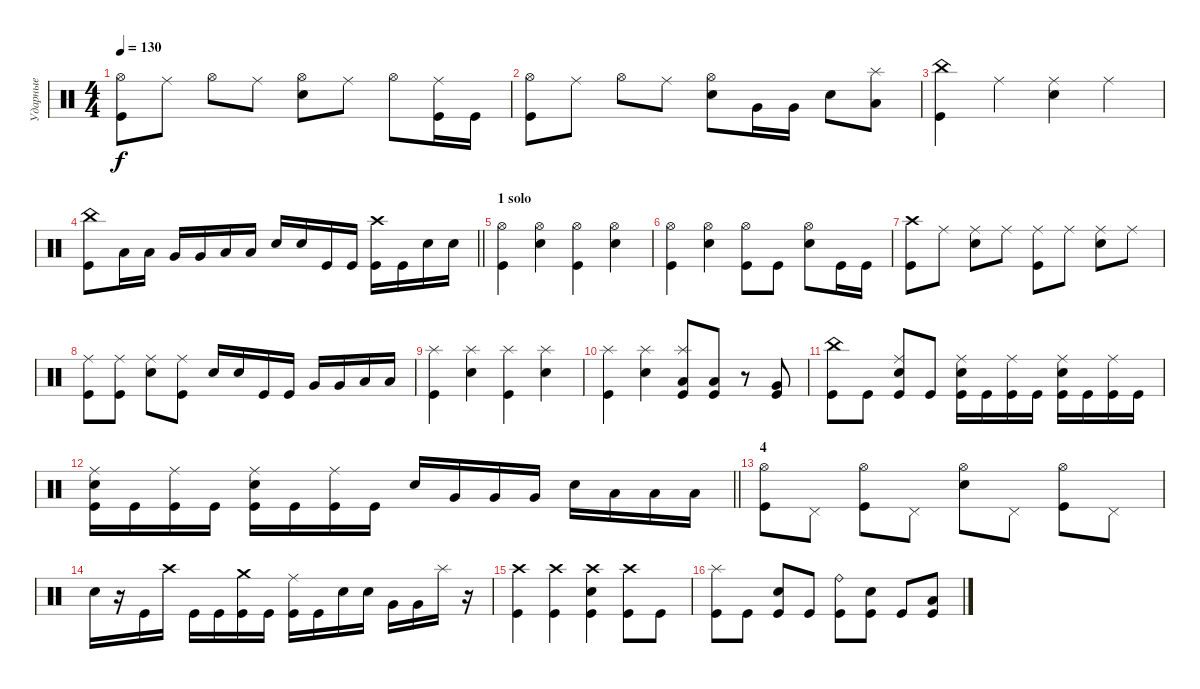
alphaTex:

\track ("Ударные" "Ударные") {instrument percussion}
\staff {score}
\articulation defaults
\ts (4 4)
\tempo 130
\clef neutral
\ks c
("Hi-Hat (open)" "Kick (hit)").8{dy f} "Ride (middle)".8 "Hi-Hat (open)".8 "Ride (middle)".8 ("Hi-Hat (open)" "Electric Snare (hit)").8 "Ride (middle)".8 "Hi-Hat (open)".8 ("Ride (middle)" "Kick (hit)").16 "Kick (hit)".16 |
("Hi-Hat (open)" "Kick (hit)").8 "Ride (middle)".8 "Hi-Hat (open)".8 "Ride (middle)".8 ("Hi-Hat (open)" "Electric Snare (hit)").8 "Very Low Tom (hit)".16 "Very Low Tom (hit)".16 "Electric Snare (hit)".8 ("Splash (hit)" "Low Floor Tom (hit)").8 |
("China (hit)" "Kick (hit)").4 "Ride (middle)".4 ("Ride (middle)" "Electric Snare (hit)").4 "Ride (middle)".4 |
\barLineRight lightlight
("China (hit)" "Kick (hit)").8 "Low Tom (hit)".16 "Low Tom (hit)".16 "Very Low Tom (hit)".16 "Very Low Tom (hit)".16 "Low Floor Tom (hit)".16 "Low Floor Tom (hit)".16 "Electric Snare (hit)".16 "Electric Snare (hit)".16 "Kick (hit)".16 "Kick (hit)".16 ("Crash high (hit)" "Kick (hit)").16 "Kick (hit)".16 "Electric Snare (hit)".16 "Electric Snare (hit)".16 |
\section ("" "1 solo")
("Hi-Hat (open)" "Kick (hit)").4 ("Hi-Hat (open)" "Electric Snare (hit)").4 ("Hi-Hat (open)" "Kick (hit)").4 ("Hi-Hat (open)" "Electric Snare (hit)").4 |
("Hi-Hat (open)" "Kick (hit)").4 ("Hi-Hat (open)" "Electric Snare (hit)").4 ("Hi-Hat (open)" "Kick (hit)").8 "Kick (hit)".8 ("Hi-Hat (open)" "Electric Snare (hit)").8 "Kick (hit)".16 "Kick (hit)".16 |
("Crash high (hit)" "Kick (hit)").8 "Ride (middle)".8 ("Ride (middle)" "Electric Snare (hit)").8 "Ride (middle)".8 ("Ride (middle)" "Kick (hit)").8 "Ride (middle)".8 ("Ride (middle)" "Electric Snare (hit)").8 "Ride (middle)".8 |
("Ride (middle)" "Kick (hit)").8 ("Ride (middle)" "Kick (hit)").8 ("Ride (middle)" "Electric Snare (hit)").8 ("Ride (middle)" "Kick (hit)").8 "Electric Snare (hit)".16 "Electric Snare (hit)".16 "Kick (hit)".16 "Kick (hit)".16 "Very Low Tom (hit)".16 "Very Low Tom (hit)".16 "Low Floor Tom (hit)".16 "Low Floor Tom (hit)".16 |
("Splash (hit)" "Kick (hit)").4 ("Splash (hit)" "Electric Snare (hit)").4 ("Splash (hit)" "Kick (hit)").4 ("Splash (hit)" "Electric Snare (hit)").4 |
("Splash (hit)" "Kick (hit)").4 ("Splash (hit)" "Electric Snare (hit)").4 ("Splash (hit)" "Low Tom (hit)" "Kick (hit)").8 ("Low Tom (hit)" "Kick (hit)").8 r.8 ("Very Low Tom (hit)" "Kick (hit)").8 |
("China (hit)" "Kick (hit)").8 "Kick (hit)".8 ("Ride (middle)" "Electric Snare (hit)" "Kick (hit)").8 "Kick (hit)".8 ("Ride (middle)" "Electric Snare (hit)" "Kick (hit)").16 "Kick (hit)".16 ("Ride (middle)" "Kick (hit)").16 "Kick (hit)".16 ("Ride (middle)" "Electric Snare (hit)" "Kick (hit)").16 "Kick (hit)".16 ("Ride (middle)" "Kick (hit)").16 "Kick (hit)".16 |
\barLineRight lightlight
("Ride (middle)" "Electric Snare (hit)" "Kick (hit)").16 "Kick (hit)".16 ("Ride (middle)" "Kick (hit)").16 "Kick (hit)".16 ("Ride (middle)" "Electric Snare (hit)" "Kick (hit)").16 "Kick (hit)".16 ("Ride (middle)" "Kick (hit)").16 "Kick (hit)".16 "Electric Snare (hit)".16 "Very Low Tom (hit)".16 "Very Low Tom (hit)".16 "Very Low Tom (hit)".16 "Electric Snare (hit)".16 "Low Floor Tom (hit)".16 "Low Floor Tom (hit)".16 "Low Floor Tom (hit)".16 |
\section ("" "4")
("Hi-Hat (open)" "Kick (hit)").8 "Pedal Hi-Hat (hit)".8 ("Hi-Hat (open)" "Kick (hit)").8 "Pedal Hi-Hat (hit)".8 ("Hi-Hat (open)" "Electric Snare (hit)").8 "Pedal Hi-Hat (hit)".8 ("Hi-Hat (open)" "Kick (hit)").8 "Pedal Hi-Hat (hit)".8 |
"Electric Snare (hit)".16 r.16 "Kick (hit)".16 "Crash high (hit)".16 "Kick (hit)".16 "Kick (hit)".16 ("Crash medium (hit)" "Kick (hit)").16 "Kick (hit)".16 ("Ride (middle)" "Kick (hit)").16 "Kick (hit)".16 "Electric Snare (hit)".16 "Electric Snare (hit)".16 "Very Low Tom (hit)".16 "Very Low Tom (hit)".16 "Splash (hit)".16 r.16 |
("Crash high (hit)" "Kick (hit)").4 ("Crash high (hit)" "Kick (hit)").4 ("Crash high (hit)" "Electric Snare (hit)" "Kick (hit)").4 ("Crash high (hit)" "Kick (hit)").8 "Kick (hit)".8 |
("Splash (hit)" "Kick (hit)").8 "Kick (hit)".8 ("Electric Snare (hit)" "Kick (hit)").8 "Kick (hit)".8 ("Ride (bell)" "Kick (hit)").8 ("Electric Snare (hit)" "Kick (hit)").8 "Kick (hit)".8 ("Low Floor Tom (hit)" "Kick (hit)").8
